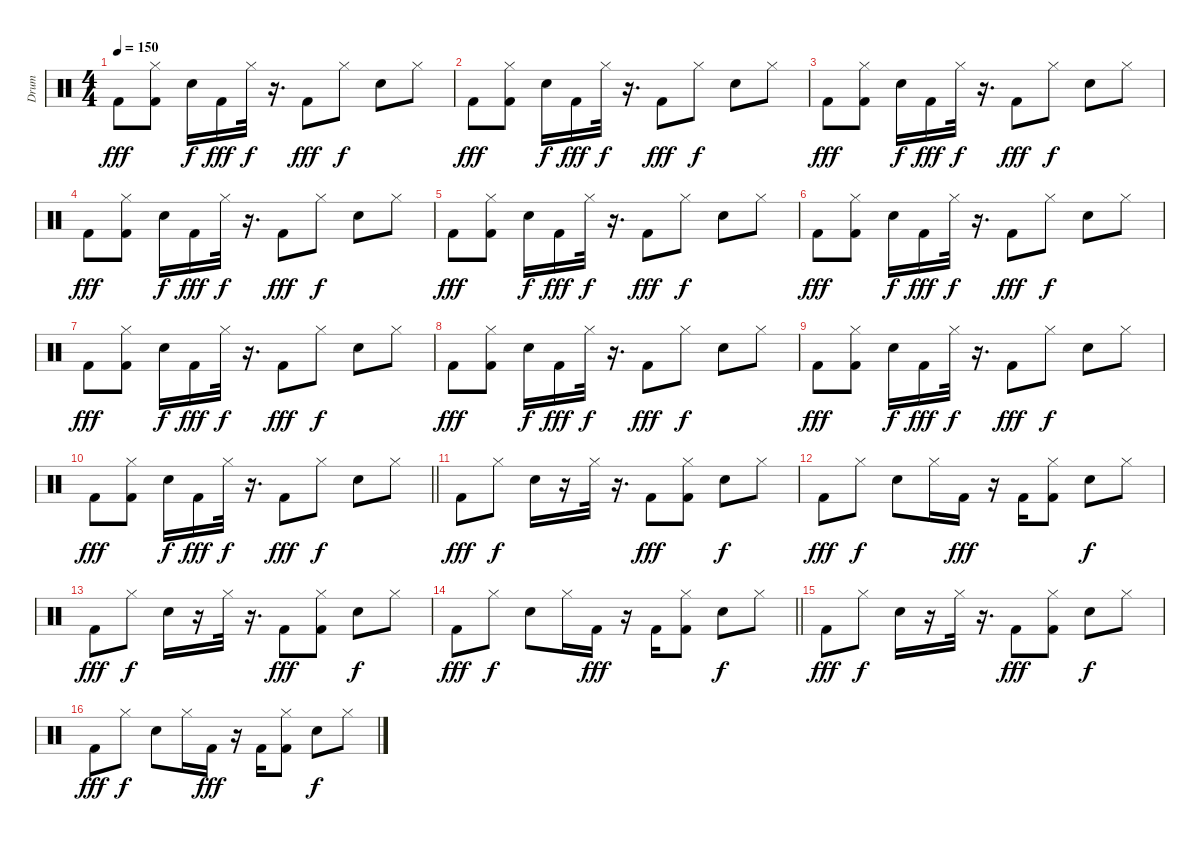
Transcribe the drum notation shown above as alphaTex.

\track ("Drum" "Drum") {instrument percussion}
\staff {score}
\articulation defaults
\ts (4 4)
\tempo 150
\clef neutral
\ks c "Kick (hit) 2".8{dy fff}
("Hi-Hat (closed)" "Kick (hit) 2").8 "Electric Snare (hit)".16{dy f} "Kick (hit) 2".16{dy fff} "Hi-Hat (closed)".32{dy f} r.16{d} "Kick (hit) 2".8{dy fff} "Hi-Hat (closed)".8{dy f} "Electric Snare (hit)".8 "Hi-Hat (closed)".8 |
"Kick (hit) 2".8{dy fff} ("Hi-Hat (closed)" "Kick (hit) 2").8 "Electric Snare (hit)".16{dy f} "Kick (hit) 2".16{dy fff} "Hi-Hat (closed)".32{dy f} r.16{d} "Kick (hit) 2".8{dy fff} "Hi-Hat (closed)".8{dy f} "Electric Snare (hit)".8 "Hi-Hat (closed)".8 |
"Kick (hit) 2".8{dy fff} ("Hi-Hat (closed)" "Kick (hit) 2").8 "Electric Snare (hit)".16{dy f} "Kick (hit) 2".16{dy fff} "Hi-Hat (closed)".32{dy f} r.16{d} "Kick (hit) 2".8{dy fff} "Hi-Hat (closed)".8{dy f} "Electric Snare (hit)".8 "Hi-Hat (closed)".8 |
"Kick (hit) 2".8{dy fff} ("Hi-Hat (closed)" "Kick (hit) 2").8 "Electric Snare (hit)".16{dy f} "Kick (hit) 2".16{dy fff} "Hi-Hat (closed)".32{dy f} r.16{d} "Kick (hit) 2".8{dy fff} "Hi-Hat (closed)".8{dy f} "Electric Snare (hit)".8 "Hi-Hat (closed)".8 |
"Kick (hit) 2".8{dy fff} ("Hi-Hat (closed)" "Kick (hit) 2").8 "Electric Snare (hit)".16{dy f} "Kick (hit) 2".16{dy fff} "Hi-Hat (closed)".32{dy f} r.16{d} "Kick (hit) 2".8{dy fff} "Hi-Hat (closed)".8{dy f} "Electric Snare (hit)".8 "Hi-Hat (closed)".8 |
"Kick (hit) 2".8{dy fff} ("Hi-Hat (closed)" "Kick (hit) 2").8 "Electric Snare (hit)".16{dy f} "Kick (hit) 2".16{dy fff} "Hi-Hat (closed)".32{dy f} r.16{d} "Kick (hit) 2".8{dy fff} "Hi-Hat (closed)".8{dy f} "Electric Snare (hit)".8 "Hi-Hat (closed)".8 |
"Kick (hit) 2".8{dy fff} ("Hi-Hat (closed)" "Kick (hit) 2").8 "Electric Snare (hit)".16{dy f} "Kick (hit) 2".16{dy fff} "Hi-Hat (closed)".32{dy f} r.16{d} "Kick (hit) 2".8{dy fff} "Hi-Hat (closed)".8{dy f} "Electric Snare (hit)".8 "Hi-Hat (closed)".8 |
"Kick (hit) 2".8{dy fff} ("Hi-Hat (closed)" "Kick (hit) 2").8 "Electric Snare (hit)".16{dy f} "Kick (hit) 2".16{dy fff} "Hi-Hat (closed)".32{dy f} r.16{d} "Kick (hit) 2".8{dy fff} "Hi-Hat (closed)".8{dy f} "Electric Snare (hit)".8 "Hi-Hat (closed)".8 |
"Kick (hit) 2".8{dy fff} ("Hi-Hat (closed)" "Kick (hit) 2").8 "Electric Snare (hit)".16{dy f} "Kick (hit) 2".16{dy fff} "Hi-Hat (closed)".32{dy f} r.16{d} "Kick (hit) 2".8{dy fff} "Hi-Hat (closed)".8{dy f} "Electric Snare (hit)".8 "Hi-Hat (closed)".8 |
\barLineRight lightlight "Kick (hit) 2".8{dy fff}
("Hi-Hat (closed)" "Kick (hit) 2").8 "Electric Snare (hit)".16{dy f} "Kick (hit) 2".16{dy fff} "Hi-Hat (closed)".32{dy f} r.16{d} "Kick (hit) 2".8{dy fff} "Hi-Hat (closed)".8{dy f} "Electric Snare (hit)".8 "Hi-Hat (closed)".8 |
"Kick (hit) 2".8{dy fff} "Hi-Hat (closed)".8{dy f} "Electric Snare (hit)".16 r.16 "Hi-Hat (closed)".32 r.16{d} "Kick (hit) 2".8{dy fff} ("Hi-Hat (closed)" "Kick (hit) 2").8 "Electric Snare (hit)".8{dy f} "Hi-Hat (closed)".8 |
"Kick (hit) 2".8{dy fff} "Hi-Hat (closed)".8{dy f} "Electric Snare (hit)".8 "Hi-Hat (closed)".16 "Kick (hit) 2".16{dy fff} r.16 "Kick (hit) 2".16 ("Hi-Hat (closed)" "Kick (hit) 2").8 "Electric Snare (hit)".8{dy f} "Hi-Hat (closed)".8 |
"Kick (hit) 2".8{dy fff} "Hi-Hat (closed)".8{dy f} "Electric Snare (hit)".16 r.16 "Hi-Hat (closed)".32 r.16{d} "Kick (hit) 2".8{dy fff} ("Hi-Hat (closed)" "Kick (hit) 2").8 "Electric Snare (hit)".8{dy f} "Hi-Hat (closed)".8 |
\barLineRight lightlight "Kick (hit) 2".8{dy fff} "Hi-Hat (closed)".8{dy f} "Electric Snare (hit)".8 "Hi-Hat (closed)".16 "Kick (hit) 2".16{dy fff}
r.16 "Kick (hit) 2".16 ("Hi-Hat (closed)" "Kick (hit) 2").8 "Electric Snare (hit)".8{dy f} "Hi-Hat (closed)".8 |
"Kick (hit) 2".8{dy fff} "Hi-Hat (closed)".8{dy f} "Electric Snare (hit)".16 r.16 "Hi-Hat (closed)".32 r.16{d} "Kick (hit) 2".8{dy fff} ("Hi-Hat (closed)" "Kick (hit) 2").8 "Electric Snare (hit)".8{dy f} "Hi-Hat (closed)".8 |
"Kick (hit) 2".8{dy fff} "Hi-Hat (closed)".8{dy f} "Electric Snare (hit)".8 "Hi-Hat (closed)".16 "Kick (hit) 2".16{dy fff} r.16 "Kick (hit) 2".16 ("Hi-Hat (closed)" "Kick (hit) 2").8 "Electric Snare (hit)".8{dy f} "Hi-Hat (closed)".8
